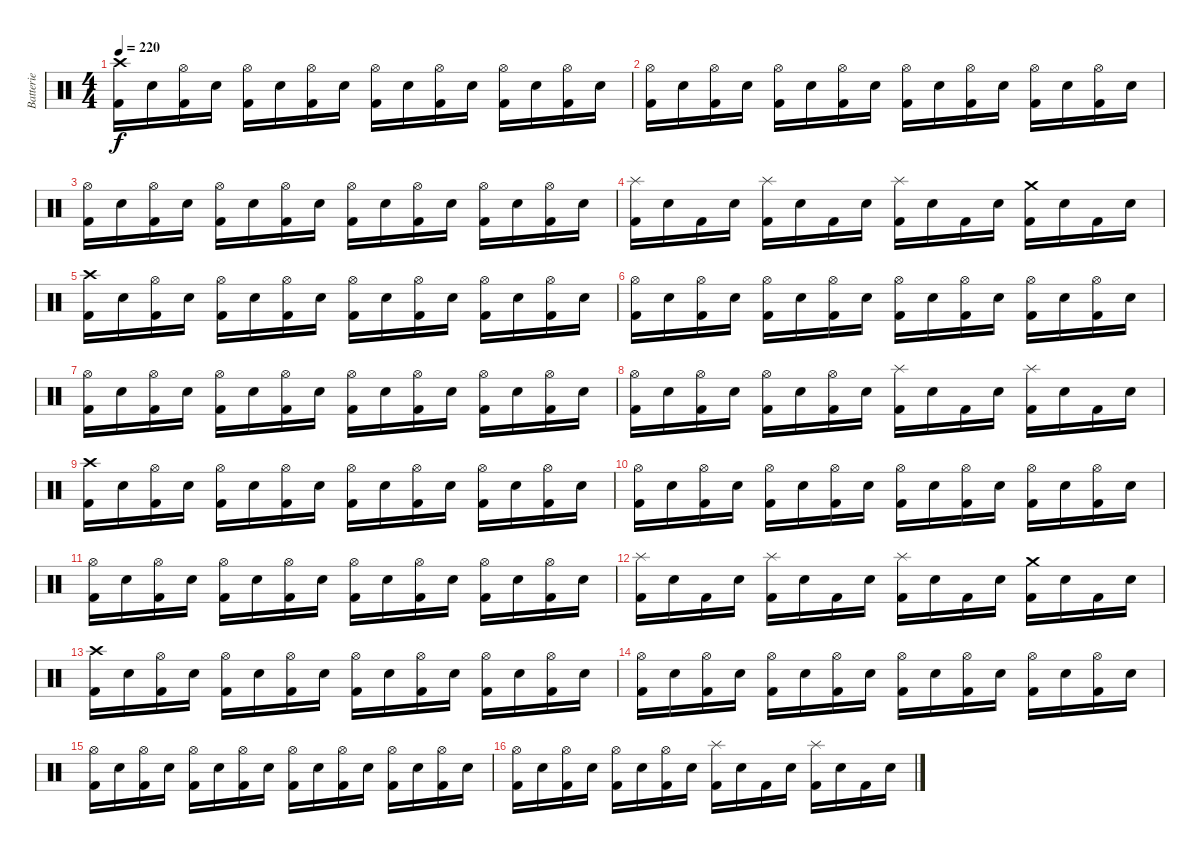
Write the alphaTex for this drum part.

\track ("Batterie" "Batterie") {instrument percussion}
\staff {score}
\articulation defaults
\ts (4 4)
\tempo 220
\clef neutral
\ks c
("Crash high (hit)" "Kick (hit) 2").16{dy f} "Electric Snare (hit)".16 ("Hi-Hat (open)" "Kick (hit) 2").16 "Electric Snare (hit)".16 ("Hi-Hat (open)" "Kick (hit) 2").16 "Electric Snare (hit)".16 ("Hi-Hat (open)" "Kick (hit) 2").16 "Electric Snare (hit)".16 ("Hi-Hat (open)" "Kick (hit) 2").16 "Electric Snare (hit)".16 ("Hi-Hat (open)" "Kick (hit) 2").16 "Electric Snare (hit)".16 ("Hi-Hat (open)" "Kick (hit) 2").16 "Electric Snare (hit)".16 ("Hi-Hat (open)" "Kick (hit) 2").16 "Electric Snare (hit)".16 |
("Hi-Hat (open)" "Kick (hit) 2").16 "Electric Snare (hit)".16 ("Hi-Hat (open)" "Kick (hit) 2").16 "Electric Snare (hit)".16 ("Hi-Hat (open)" "Kick (hit) 2").16 "Electric Snare (hit)".16 ("Hi-Hat (open)" "Kick (hit) 2").16 "Electric Snare (hit)".16 ("Hi-Hat (open)" "Kick (hit) 2").16 "Electric Snare (hit)".16 ("Hi-Hat (open)" "Kick (hit) 2").16 "Electric Snare (hit)".16 ("Hi-Hat (open)" "Kick (hit) 2").16 "Electric Snare (hit)".16 ("Hi-Hat (open)" "Kick (hit) 2").16 "Electric Snare (hit)".16 |
("Hi-Hat (open)" "Kick (hit) 2").16 "Electric Snare (hit)".16 ("Hi-Hat (open)" "Kick (hit) 2").16 "Electric Snare (hit)".16 ("Hi-Hat (open)" "Kick (hit) 2").16 "Electric Snare (hit)".16 ("Hi-Hat (open)" "Kick (hit) 2").16 "Electric Snare (hit)".16 ("Hi-Hat (open)" "Kick (hit) 2").16 "Electric Snare (hit)".16 ("Hi-Hat (open)" "Kick (hit) 2").16 "Electric Snare (hit)".16 ("Hi-Hat (open)" "Kick (hit) 2").16 "Electric Snare (hit)".16 ("Hi-Hat (open)" "Kick (hit) 2").16 "Electric Snare (hit)".16 |
("Splash (hit)" "Kick (hit) 2").16 "Electric Snare (hit)".16 "Kick (hit) 2".16 "Electric Snare (hit)".16 ("Splash (hit)" "Kick (hit) 2").16 "Electric Snare (hit)".16 "Kick (hit) 2".16 "Electric Snare (hit)".16 ("Splash (hit)" "Kick (hit) 2").16 "Electric Snare (hit)".16 "Kick (hit) 2".16 "Electric Snare (hit)".16 ("Crash medium (hit)" "Kick (hit) 2").16 "Electric Snare (hit)".16 "Kick (hit) 2".16 "Electric Snare (hit)".16 |
("Crash high (hit)" "Kick (hit) 2").16 "Electric Snare (hit)".16 ("Hi-Hat (open)" "Kick (hit) 2").16 "Electric Snare (hit)".16 ("Hi-Hat (open)" "Kick (hit) 2").16 "Electric Snare (hit)".16 ("Hi-Hat (open)" "Kick (hit) 2").16 "Electric Snare (hit)".16 ("Hi-Hat (open)" "Kick (hit) 2").16 "Electric Snare (hit)".16 ("Hi-Hat (open)" "Kick (hit) 2").16 "Electric Snare (hit)".16 ("Hi-Hat (open)" "Kick (hit) 2").16 "Electric Snare (hit)".16 ("Hi-Hat (open)" "Kick (hit) 2").16 "Electric Snare (hit)".16 |
("Hi-Hat (open)" "Kick (hit) 2").16 "Electric Snare (hit)".16 ("Hi-Hat (open)" "Kick (hit) 2").16 "Electric Snare (hit)".16 ("Hi-Hat (open)" "Kick (hit) 2").16 "Electric Snare (hit)".16 ("Hi-Hat (open)" "Kick (hit) 2").16 "Electric Snare (hit)".16 ("Hi-Hat (open)" "Kick (hit) 2").16 "Electric Snare (hit)".16 ("Hi-Hat (open)" "Kick (hit) 2").16 "Electric Snare (hit)".16 ("Hi-Hat (open)" "Kick (hit) 2").16 "Electric Snare (hit)".16 ("Hi-Hat (open)" "Kick (hit) 2").16 "Electric Snare (hit)".16 |
("Hi-Hat (open)" "Kick (hit) 2").16 "Electric Snare (hit)".16 ("Hi-Hat (open)" "Kick (hit) 2").16 "Electric Snare (hit)".16 ("Hi-Hat (open)" "Kick (hit) 2").16 "Electric Snare (hit)".16 ("Hi-Hat (open)" "Kick (hit) 2").16 "Electric Snare (hit)".16 ("Hi-Hat (open)" "Kick (hit) 2").16 "Electric Snare (hit)".16 ("Hi-Hat (open)" "Kick (hit) 2").16 "Electric Snare (hit)".16 ("Hi-Hat (open)" "Kick (hit) 2").16 "Electric Snare (hit)".16 ("Hi-Hat (open)" "Kick (hit) 2").16 "Electric Snare (hit)".16 |
("Hi-Hat (open)" "Kick (hit) 2").16 "Electric Snare (hit)".16 ("Hi-Hat (open)" "Kick (hit) 2").16 "Electric Snare (hit)".16 ("Hi-Hat (open)" "Kick (hit) 2").16 "Electric Snare (hit)".16 ("Hi-Hat (open)" "Kick (hit) 2").16 "Electric Snare (hit)".16 ("Splash (hit)" "Kick (hit) 2").16 "Electric Snare (hit)".16 "Kick (hit) 2".16 "Electric Snare (hit)".16 ("Splash (hit)" "Kick (hit) 2").16 "Electric Snare (hit)".16 "Kick (hit) 2".16 "Electric Snare (hit)".16 |
("Crash high (hit)" "Kick (hit) 2").16 "Electric Snare (hit)".16 ("Hi-Hat (open)" "Kick (hit) 2").16 "Electric Snare (hit)".16 ("Hi-Hat (open)" "Kick (hit) 2").16 "Electric Snare (hit)".16 ("Hi-Hat (open)" "Kick (hit) 2").16 "Electric Snare (hit)".16 ("Hi-Hat (open)" "Kick (hit) 2").16 "Electric Snare (hit)".16 ("Hi-Hat (open)" "Kick (hit) 2").16 "Electric Snare (hit)".16 ("Hi-Hat (open)" "Kick (hit) 2").16 "Electric Snare (hit)".16 ("Hi-Hat (open)" "Kick (hit) 2").16 "Electric Snare (hit)".16 |
("Hi-Hat (open)" "Kick (hit) 2").16 "Electric Snare (hit)".16 ("Hi-Hat (open)" "Kick (hit) 2").16 "Electric Snare (hit)".16 ("Hi-Hat (open)" "Kick (hit) 2").16 "Electric Snare (hit)".16 ("Hi-Hat (open)" "Kick (hit) 2").16 "Electric Snare (hit)".16 ("Hi-Hat (open)" "Kick (hit) 2").16 "Electric Snare (hit)".16 ("Hi-Hat (open)" "Kick (hit) 2").16 "Electric Snare (hit)".16 ("Hi-Hat (open)" "Kick (hit) 2").16 "Electric Snare (hit)".16 ("Hi-Hat (open)" "Kick (hit) 2").16 "Electric Snare (hit)".16 |
("Hi-Hat (open)" "Kick (hit) 2").16 "Electric Snare (hit)".16 ("Hi-Hat (open)" "Kick (hit) 2").16 "Electric Snare (hit)".16 ("Hi-Hat (open)" "Kick (hit) 2").16 "Electric Snare (hit)".16 ("Hi-Hat (open)" "Kick (hit) 2").16 "Electric Snare (hit)".16 ("Hi-Hat (open)" "Kick (hit) 2").16 "Electric Snare (hit)".16 ("Hi-Hat (open)" "Kick (hit) 2").16 "Electric Snare (hit)".16 ("Hi-Hat (open)" "Kick (hit) 2").16 "Electric Snare (hit)".16 ("Hi-Hat (open)" "Kick (hit) 2").16 "Electric Snare (hit)".16 |
("Splash (hit)" "Kick (hit) 2").16 "Electric Snare (hit)".16 "Kick (hit) 2".16 "Electric Snare (hit)".16 ("Splash (hit)" "Kick (hit) 2").16 "Electric Snare (hit)".16 "Kick (hit) 2".16 "Electric Snare (hit)".16 ("Splash (hit)" "Kick (hit) 2").16 "Electric Snare (hit)".16 "Kick (hit) 2".16 "Electric Snare (hit)".16 ("Crash medium (hit)" "Kick (hit) 2").16 "Electric Snare (hit)".16 "Kick (hit) 2".16 "Electric Snare (hit)".16 |
("Crash high (hit)" "Kick (hit) 2").16 "Electric Snare (hit)".16 ("Hi-Hat (open)" "Kick (hit) 2").16 "Electric Snare (hit)".16 ("Hi-Hat (open)" "Kick (hit) 2").16 "Electric Snare (hit)".16 ("Hi-Hat (open)" "Kick (hit) 2").16 "Electric Snare (hit)".16 ("Hi-Hat (open)" "Kick (hit) 2").16 "Electric Snare (hit)".16 ("Hi-Hat (open)" "Kick (hit) 2").16 "Electric Snare (hit)".16 ("Hi-Hat (open)" "Kick (hit) 2").16 "Electric Snare (hit)".16 ("Hi-Hat (open)" "Kick (hit) 2").16 "Electric Snare (hit)".16 |
("Hi-Hat (open)" "Kick (hit) 2").16 "Electric Snare (hit)".16 ("Hi-Hat (open)" "Kick (hit) 2").16 "Electric Snare (hit)".16 ("Hi-Hat (open)" "Kick (hit) 2").16 "Electric Snare (hit)".16 ("Hi-Hat (open)" "Kick (hit) 2").16 "Electric Snare (hit)".16 ("Hi-Hat (open)" "Kick (hit) 2").16 "Electric Snare (hit)".16 ("Hi-Hat (open)" "Kick (hit) 2").16 "Electric Snare (hit)".16 ("Hi-Hat (open)" "Kick (hit) 2").16 "Electric Snare (hit)".16 ("Hi-Hat (open)" "Kick (hit) 2").16 "Electric Snare (hit)".16 |
("Hi-Hat (open)" "Kick (hit) 2").16 "Electric Snare (hit)".16 ("Hi-Hat (open)" "Kick (hit) 2").16 "Electric Snare (hit)".16 ("Hi-Hat (open)" "Kick (hit) 2").16 "Electric Snare (hit)".16 ("Hi-Hat (open)" "Kick (hit) 2").16 "Electric Snare (hit)".16 ("Hi-Hat (open)" "Kick (hit) 2").16 "Electric Snare (hit)".16 ("Hi-Hat (open)" "Kick (hit) 2").16 "Electric Snare (hit)".16 ("Hi-Hat (open)" "Kick (hit) 2").16 "Electric Snare (hit)".16 ("Hi-Hat (open)" "Kick (hit) 2").16 "Electric Snare (hit)".16 |
("Hi-Hat (open)" "Kick (hit) 2").16 "Electric Snare (hit)".16 ("Hi-Hat (open)" "Kick (hit) 2").16 "Electric Snare (hit)".16 ("Hi-Hat (open)" "Kick (hit) 2").16 "Electric Snare (hit)".16 ("Hi-Hat (open)" "Kick (hit) 2").16 "Electric Snare (hit)".16 ("Splash (hit)" "Kick (hit) 2").16 "Electric Snare (hit)".16 "Kick (hit) 2".16 "Electric Snare (hit)".16 ("Splash (hit)" "Kick (hit) 2").16 "Electric Snare (hit)".16 "Kick (hit) 2".16 "Electric Snare (hit)".16
